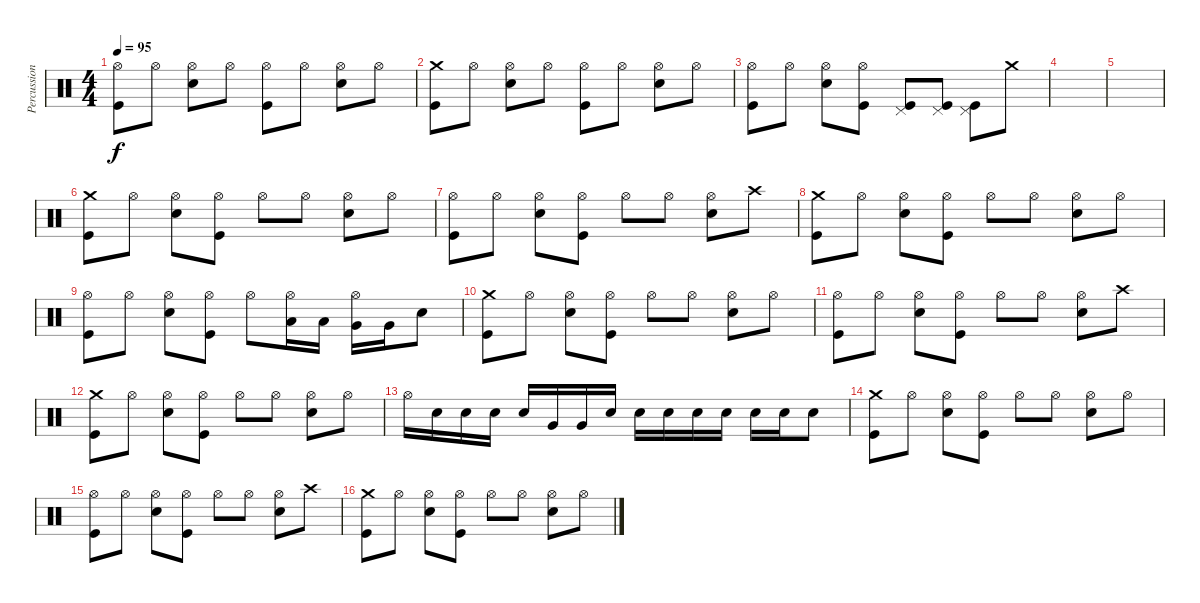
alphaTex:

\track ("Percussion" "Percussion") {instrument percussion}
\staff {score}
\articulation defaults
\ts (4 4)
\tempo 95
\clef neutral
\ks c
("Hi-Hat (open)" "Kick (hit)").8{dy f} "Hi-Hat (open)".8 ("Hi-Hat (open)" "Electric Snare (hit)").8 "Hi-Hat (open)".8 ("Hi-Hat (open)" "Kick (hit)").8 "Hi-Hat (open)".8 ("Hi-Hat (open)" "Electric Snare (hit)").8 "Hi-Hat (open)".8 |
("Crash medium (hit)" "Kick (hit)").8 "Hi-Hat (open)".8 ("Hi-Hat (open)" "Electric Snare (hit)").8 "Hi-Hat (open)".8 ("Hi-Hat (open)" "Kick (hit)").8 "Hi-Hat (open)".8 ("Hi-Hat (open)" "Electric Snare (hit)").8 "Hi-Hat (open)".8 |
("Hi-Hat (open)" "Kick (hit)").8 "Hi-Hat (open)".8 ("Hi-Hat (open)" "Electric Snare (hit)").8 ("Hi-Hat (open)" "Kick (hit)").8 ("Pedal Hi-Hat (hit)" "Kick (hit)").8 ("Pedal Hi-Hat (hit)" "Kick (hit)").8 ("Pedal Hi-Hat (hit)" "Kick (hit)").8 "Crash medium (hit)".8 |
|
|
("Crash medium (hit)" "Kick (hit)").8 "Hi-Hat (open)".8 ("Hi-Hat (open)" "Electric Snare (hit)").8 ("Hi-Hat (open)" "Kick (hit)").8 "Hi-Hat (open)".8 "Hi-Hat (open)".8 ("Hi-Hat (open)" "Electric Snare (hit)").8 "Hi-Hat (open)".8 |
("Hi-Hat (open)" "Kick (hit)").8 "Hi-Hat (open)".8 ("Hi-Hat (open)" "Electric Snare (hit)").8 ("Hi-Hat (open)" "Kick (hit)").8 "Hi-Hat (open)".8 "Hi-Hat (open)".8 ("Hi-Hat (open)" "Electric Snare (hit)").8 "Crash high (hit)".8 |
("Crash medium (hit)" "Kick (hit)").8 "Hi-Hat (open)".8 ("Hi-Hat (open)" "Electric Snare (hit)").8 ("Hi-Hat (open)" "Kick (hit)").8 "Hi-Hat (open)".8 "Hi-Hat (open)".8 ("Hi-Hat (open)" "Electric Snare (hit)").8 "Hi-Hat (open)".8 |
("Hi-Hat (open)" "Kick (hit)").8 "Hi-Hat (open)".8 ("Hi-Hat (open)" "Electric Snare (hit)").8 ("Hi-Hat (open)" "Kick (hit)").8 "Hi-Hat (open)".8 ("Hi-Hat (open)" "Low Floor Tom (hit)").16 "Low Floor Tom (hit)".16 ("Hi-Hat (open)" "Very Low Tom (hit)").16 "Very Low Tom (hit)".16 "Electric Snare (hit)".8 |
("Crash medium (hit)" "Kick (hit)").8 "Hi-Hat (open)".8 ("Hi-Hat (open)" "Electric Snare (hit)").8 ("Hi-Hat (open)" "Kick (hit)").8 "Hi-Hat (open)".8 "Hi-Hat (open)".8 ("Hi-Hat (open)" "Electric Snare (hit)").8 "Hi-Hat (open)".8 |
("Hi-Hat (open)" "Kick (hit)").8 "Hi-Hat (open)".8 ("Hi-Hat (open)" "Electric Snare (hit)").8 ("Hi-Hat (open)" "Kick (hit)").8 "Hi-Hat (open)".8 "Hi-Hat (open)".8 ("Hi-Hat (open)" "Electric Snare (hit)").8 "Crash high (hit)".8 |
("Crash medium (hit)" "Kick (hit)").8 "Hi-Hat (open)".8 ("Hi-Hat (open)" "Electric Snare (hit)").8 ("Hi-Hat (open)" "Kick (hit)").8 "Hi-Hat (open)".8 "Hi-Hat (open)".8 ("Hi-Hat (open)" "Electric Snare (hit)").8 "Hi-Hat (open)".8 |
"Hi-Hat (open)".16 "Electric Snare (hit)".16 "Electric Snare (hit)".16 "Electric Snare (hit)".16 "Electric Snare (hit)".16 "Very Low Tom (hit)".16 "Very Low Tom (hit)".16 "Electric Snare (hit)".16 "Electric Snare (hit)".16 "Electric Snare (hit)".16 "Electric Snare (hit)".16 "Electric Snare (hit)".16 "Electric Snare (hit)".16 "Electric Snare (hit)".16 "Electric Snare (hit)".8 |
("Crash medium (hit)" "Kick (hit)").8 "Hi-Hat (open)".8 ("Hi-Hat (open)" "Electric Snare (hit)").8 ("Hi-Hat (open)" "Kick (hit)").8 "Hi-Hat (open)".8 "Hi-Hat (open)".8 ("Hi-Hat (open)" "Electric Snare (hit)").8 "Hi-Hat (open)".8 |
("Hi-Hat (open)" "Kick (hit)").8 "Hi-Hat (open)".8 ("Hi-Hat (open)" "Electric Snare (hit)").8 ("Hi-Hat (open)" "Kick (hit)").8 "Hi-Hat (open)".8 "Hi-Hat (open)".8 ("Hi-Hat (open)" "Electric Snare (hit)").8 "Crash high (hit)".8 |
("Crash medium (hit)" "Kick (hit)").8 "Hi-Hat (open)".8 ("Hi-Hat (open)" "Electric Snare (hit)").8 ("Hi-Hat (open)" "Kick (hit)").8 "Hi-Hat (open)".8 "Hi-Hat (open)".8 ("Hi-Hat (open)" "Electric Snare (hit)").8 "Hi-Hat (open)".8
